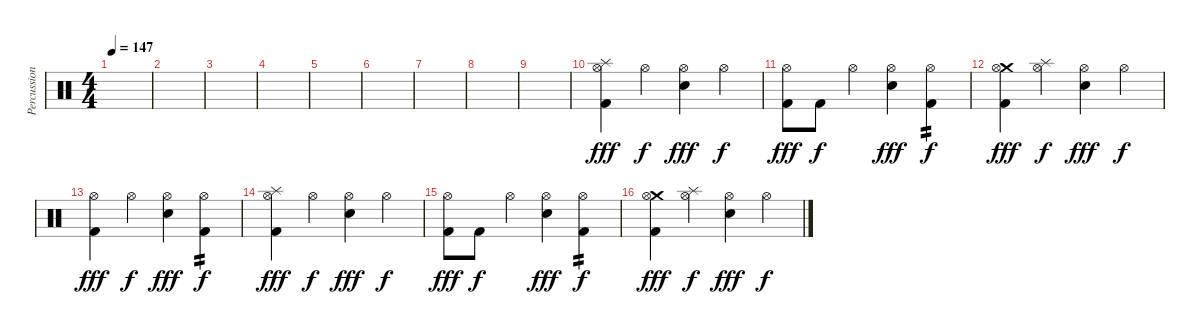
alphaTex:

\track ("Percussion" "Percussion") {instrument percussion}
\staff
\articulation defaults
\ts (4 4)
\tempo 147
\clef neutral
\ks c
|
|
|
|
|
|
|
|
|
("Splash (hit)" "Hi-Hat (open)" "Kick (hit) 2").4{dy fff} "Hi-Hat (open)".4{dy f} ("Hi-Hat (open)" "Electric Snare (hit)").4{dy fff} "Hi-Hat (open)".4{dy f} |
("Hi-Hat (open)" "Kick (hit) 2").8{dy fff} "Kick (hit) 2".8{dy f} "Hi-Hat (open)".4 ("Hi-Hat (open)" "Electric Snare (hit)").4{dy fff} ("Hi-Hat (open)" "Kick (hit) 2").4{tp 2 dy f} |
("Crash medium (hit)" "Hi-Hat (open)" "Kick (hit) 2").4{dy fff} ("Splash (hit)" "Hi-Hat (open)").4{dy f} ("Hi-Hat (open)" "Electric Snare (hit)").4{dy fff} "Hi-Hat (open)".4{dy f} |
("Hi-Hat (open)" "Kick (hit) 2").4{dy fff} "Hi-Hat (open)".4{dy f} ("Hi-Hat (open)" "Electric Snare (hit)").4{dy fff} ("Hi-Hat (open)" "Kick (hit) 2").4{tp 2 dy f} |
("Splash (hit)" "Hi-Hat (open)" "Kick (hit) 2").4{dy fff} "Hi-Hat (open)".4{dy f} ("Hi-Hat (open)" "Electric Snare (hit)").4{dy fff} "Hi-Hat (open)".4{dy f} |
("Hi-Hat (open)" "Kick (hit) 2").8{dy fff} "Kick (hit) 2".8{dy f} "Hi-Hat (open)".4 ("Hi-Hat (open)" "Electric Snare (hit)").4{dy fff} ("Hi-Hat (open)" "Kick (hit) 2").4{tp 2 dy f} |
("Crash medium (hit)" "Hi-Hat (open)" "Kick (hit) 2").4{dy fff} ("Splash (hit)" "Hi-Hat (open)").4{dy f} ("Hi-Hat (open)" "Electric Snare (hit)").4{dy fff} "Hi-Hat (open)".4{dy f}
